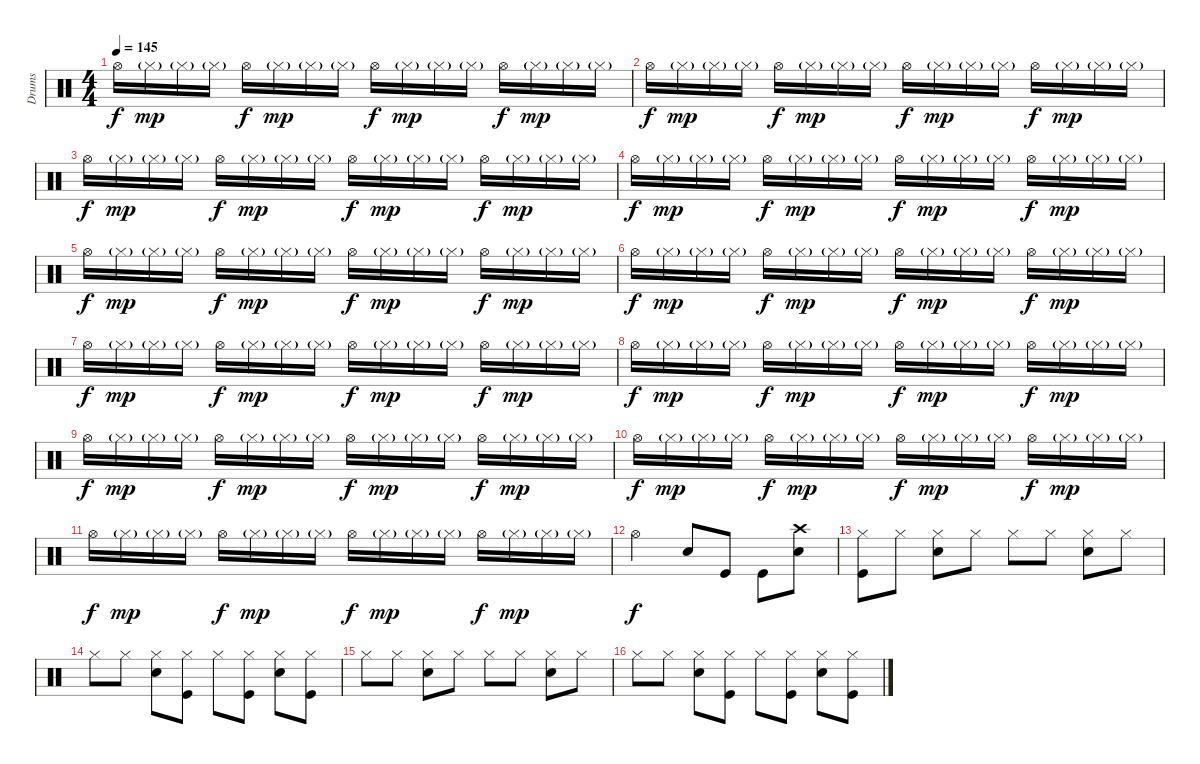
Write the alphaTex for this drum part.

\track ("Drums" "Drums") {instrument percussion}
\staff {score}
\articulation defaults
\ts (4 4)
\tempo 145
\clef neutral
\ks c "Hi-Hat (open)".16{dy f} "Hi-Hat (closed)"{g}.16{dy mp} "Hi-Hat (closed)"{g}.16 "Hi-Hat (closed)"{g}.16 "Hi-Hat (open)".16{dy f} "Hi-Hat (closed)"{g}.16{dy mp} "Hi-Hat (closed)"{g}.16 "Hi-Hat (closed)"{g}.16 "Hi-Hat (open)".16{dy f} "Hi-Hat (closed)"{g}.16{dy mp} "Hi-Hat (closed)"{g}.16 "Hi-Hat (closed)"{g}.16 "Hi-Hat (open)".16{dy f} "Hi-Hat (closed)"{g}.16{dy mp} "Hi-Hat (closed)"{g}.16 "Hi-Hat (closed)"{g}.16
|
"Hi-Hat (open)".16{dy f} "Hi-Hat (closed)"{g}.16{dy mp} "Hi-Hat (closed)"{g}.16 "Hi-Hat (closed)"{g}.16 "Hi-Hat (open)".16{dy f} "Hi-Hat (closed)"{g}.16{dy mp} "Hi-Hat (closed)"{g}.16 "Hi-Hat (closed)"{g}.16 "Hi-Hat (open)".16{dy f} "Hi-Hat (closed)"{g}.16{dy mp} "Hi-Hat (closed)"{g}.16 "Hi-Hat (closed)"{g}.16 "Hi-Hat (open)".16{dy f} "Hi-Hat (closed)"{g}.16{dy mp} "Hi-Hat (closed)"{g}.16 "Hi-Hat (closed)"{g}.16 |
"Hi-Hat (open)".16{dy f} "Hi-Hat (closed)"{g}.16{dy mp} "Hi-Hat (closed)"{g}.16 "Hi-Hat (closed)"{g}.16 "Hi-Hat (open)".16{dy f} "Hi-Hat (closed)"{g}.16{dy mp} "Hi-Hat (closed)"{g}.16 "Hi-Hat (closed)"{g}.16 "Hi-Hat (open)".16{dy f} "Hi-Hat (closed)"{g}.16{dy mp} "Hi-Hat (closed)"{g}.16 "Hi-Hat (closed)"{g}.16 "Hi-Hat (open)".16{dy f} "Hi-Hat (closed)"{g}.16{dy mp} "Hi-Hat (closed)"{g}.16 "Hi-Hat (closed)"{g}.16 |
"Hi-Hat (open)".16{dy f} "Hi-Hat (closed)"{g}.16{dy mp} "Hi-Hat (closed)"{g}.16 "Hi-Hat (closed)"{g}.16 "Hi-Hat (open)".16{dy f} "Hi-Hat (closed)"{g}.16{dy mp} "Hi-Hat (closed)"{g}.16 "Hi-Hat (closed)"{g}.16 "Hi-Hat (open)".16{dy f} "Hi-Hat (closed)"{g}.16{dy mp} "Hi-Hat (closed)"{g}.16 "Hi-Hat (closed)"{g}.16 "Hi-Hat (open)".16{dy f} "Hi-Hat (closed)"{g}.16{dy mp} "Hi-Hat (closed)"{g}.16 "Hi-Hat (closed)"{g}.16 |
"Hi-Hat (open)".16{dy f} "Hi-Hat (closed)"{g}.16{dy mp} "Hi-Hat (closed)"{g}.16 "Hi-Hat (closed)"{g}.16 "Hi-Hat (open)".16{dy f} "Hi-Hat (closed)"{g}.16{dy mp} "Hi-Hat (closed)"{g}.16 "Hi-Hat (closed)"{g}.16 "Hi-Hat (open)".16{dy f} "Hi-Hat (closed)"{g}.16{dy mp} "Hi-Hat (closed)"{g}.16 "Hi-Hat (closed)"{g}.16 "Hi-Hat (open)".16{dy f} "Hi-Hat (closed)"{g}.16{dy mp} "Hi-Hat (closed)"{g}.16 "Hi-Hat (closed)"{g}.16 |
"Hi-Hat (open)".16{dy f} "Hi-Hat (closed)"{g}.16{dy mp} "Hi-Hat (closed)"{g}.16 "Hi-Hat (closed)"{g}.16 "Hi-Hat (open)".16{dy f} "Hi-Hat (closed)"{g}.16{dy mp} "Hi-Hat (closed)"{g}.16 "Hi-Hat (closed)"{g}.16 "Hi-Hat (open)".16{dy f} "Hi-Hat (closed)"{g}.16{dy mp} "Hi-Hat (closed)"{g}.16 "Hi-Hat (closed)"{g}.16 "Hi-Hat (open)".16{dy f} "Hi-Hat (closed)"{g}.16{dy mp} "Hi-Hat (closed)"{g}.16 "Hi-Hat (closed)"{g}.16 |
"Hi-Hat (open)".16{dy f} "Hi-Hat (closed)"{g}.16{dy mp} "Hi-Hat (closed)"{g}.16 "Hi-Hat (closed)"{g}.16 "Hi-Hat (open)".16{dy f} "Hi-Hat (closed)"{g}.16{dy mp} "Hi-Hat (closed)"{g}.16 "Hi-Hat (closed)"{g}.16 "Hi-Hat (open)".16{dy f} "Hi-Hat (closed)"{g}.16{dy mp} "Hi-Hat (closed)"{g}.16 "Hi-Hat (closed)"{g}.16 "Hi-Hat (open)".16{dy f} "Hi-Hat (closed)"{g}.16{dy mp} "Hi-Hat (closed)"{g}.16 "Hi-Hat (closed)"{g}.16 |
"Hi-Hat (open)".16{dy f} "Hi-Hat (closed)"{g}.16{dy mp} "Hi-Hat (closed)"{g}.16 "Hi-Hat (closed)"{g}.16 "Hi-Hat (open)".16{dy f} "Hi-Hat (closed)"{g}.16{dy mp} "Hi-Hat (closed)"{g}.16 "Hi-Hat (closed)"{g}.16 "Hi-Hat (open)".16{dy f} "Hi-Hat (closed)"{g}.16{dy mp} "Hi-Hat (closed)"{g}.16 "Hi-Hat (closed)"{g}.16 "Hi-Hat (open)".16{dy f} "Hi-Hat (closed)"{g}.16{dy mp} "Hi-Hat (closed)"{g}.16 "Hi-Hat (closed)"{g}.16 |
"Hi-Hat (open)".16{dy f} "Hi-Hat (closed)"{g}.16{dy mp} "Hi-Hat (closed)"{g}.16 "Hi-Hat (closed)"{g}.16 "Hi-Hat (open)".16{dy f} "Hi-Hat (closed)"{g}.16{dy mp} "Hi-Hat (closed)"{g}.16 "Hi-Hat (closed)"{g}.16 "Hi-Hat (open)".16{dy f} "Hi-Hat (closed)"{g}.16{dy mp} "Hi-Hat (closed)"{g}.16 "Hi-Hat (closed)"{g}.16 "Hi-Hat (open)".16{dy f} "Hi-Hat (closed)"{g}.16{dy mp} "Hi-Hat (closed)"{g}.16 "Hi-Hat (closed)"{g}.16 |
"Hi-Hat (open)".16{dy f} "Hi-Hat (closed)"{g}.16{dy mp} "Hi-Hat (closed)"{g}.16 "Hi-Hat (closed)"{g}.16 "Hi-Hat (open)".16{dy f} "Hi-Hat (closed)"{g}.16{dy mp} "Hi-Hat (closed)"{g}.16 "Hi-Hat (closed)"{g}.16 "Hi-Hat (open)".16{dy f} "Hi-Hat (closed)"{g}.16{dy mp} "Hi-Hat (closed)"{g}.16 "Hi-Hat (closed)"{g}.16 "Hi-Hat (open)".16{dy f} "Hi-Hat (closed)"{g}.16{dy mp} "Hi-Hat (closed)"{g}.16 "Hi-Hat (closed)"{g}.16 |
"Hi-Hat (open)".16{dy f} "Hi-Hat (closed)"{g}.16{dy mp} "Hi-Hat (closed)"{g}.16 "Hi-Hat (closed)"{g}.16 "Hi-Hat (open)".16{dy f} "Hi-Hat (closed)"{g}.16{dy mp} "Hi-Hat (closed)"{g}.16 "Hi-Hat (closed)"{g}.16 "Hi-Hat (open)".16{dy f} "Hi-Hat (closed)"{g}.16{dy mp} "Hi-Hat (closed)"{g}.16 "Hi-Hat (closed)"{g}.16 "Hi-Hat (open)".16{dy f} "Hi-Hat (closed)"{g}.16{dy mp} "Hi-Hat (closed)"{g}.16 "Hi-Hat (closed)"{g}.16 |
"Hi-Hat (open)".2{dy f} "Snare (hit) 2".8 "Kick (hit)".8 "Kick (hit)".8 ("Crash high (hit)" "Snare (hit) 2").8 |
("Hi-Hat (closed)" "Kick (hit)").8 "Hi-Hat (closed)".8 ("Hi-Hat (closed)" "Snare (hit) 2").8 "Hi-Hat (closed)".8 "Hi-Hat (closed)".8 "Hi-Hat (closed)".8 ("Hi-Hat (closed)" "Snare (hit) 2").8 "Hi-Hat (closed)".8 |
"Hi-Hat (closed)".8 "Hi-Hat (closed)".8 ("Hi-Hat (closed)" "Snare (hit) 2").8 ("Hi-Hat (closed)" "Kick (hit)").8 "Hi-Hat (closed)".8 ("Hi-Hat (closed)" "Kick (hit)").8 ("Hi-Hat (closed)" "Snare (hit) 2").8 ("Hi-Hat (closed)" "Kick (hit)").8 |
"Hi-Hat (closed)".8 "Hi-Hat (closed)".8 ("Hi-Hat (closed)" "Snare (hit) 2").8 "Hi-Hat (closed)".8 "Hi-Hat (closed)".8 "Hi-Hat (closed)".8 ("Hi-Hat (closed)" "Snare (hit) 2").8 "Hi-Hat (closed)".8 |
"Hi-Hat (closed)".8 "Hi-Hat (closed)".8 ("Hi-Hat (closed)" "Snare (hit) 2").8 ("Hi-Hat (closed)" "Kick (hit)").8 "Hi-Hat (closed)".8 ("Hi-Hat (closed)" "Kick (hit)").8 ("Hi-Hat (closed)" "Snare (hit) 2").8 ("Hi-Hat (closed)" "Kick (hit)").8
